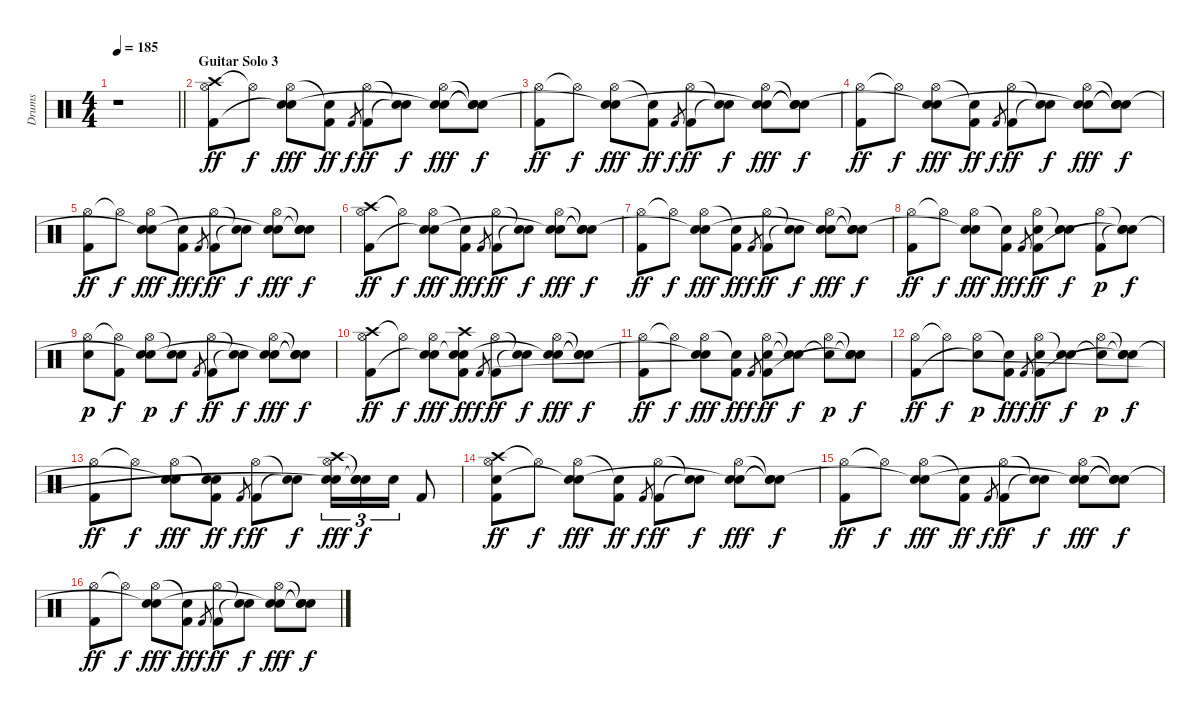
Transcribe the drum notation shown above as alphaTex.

\track ("Drums" "Drums") {instrument percussion}
\staff {score}
\articulation defaults
\ts (4 4)
\tempo 185
\clef neutral
\barLineRight lightlight
\ks c
r.1{dy f} |
\section ("" "Guitar Solo 3")
("Crash high (hit)" "Hi-Hat (open)" "Kick (hit) 2").8{dy ff} "Hi-Hat (open)"{t}.8{dy f} ("Hi-Hat (open)" "Electric Snare (hit)" "Snare (hit)"{t}).8{dy fff} ("Snare (hit)"{t} "Kick (hit) 2").8{dy ff} "Kick (hit) 2".8{gr dy f} ("Hi-Hat (open)" "Kick (hit) 2").8{dy ff} ("Snare (hit)"{t} "Snare (hit)"{t}).8{dy f} ("Hi-Hat (open)" "Electric Snare (hit)" "Snare (hit)"{t}).8{dy fff} ("Snare (hit)"{t} "Snare (hit)"{t} "Snare (hit)"{t}).8{dy f} |
("Hi-Hat (open)" "Kick (hit) 2").8{dy ff} "Hi-Hat (open)"{t}.8{dy f} ("Hi-Hat (open)" "Electric Snare (hit)" "Snare (hit)"{t}).8{dy fff} ("Snare (hit)"{t} "Kick (hit) 2").8{dy ff} "Kick (hit) 2".8{gr dy f} ("Hi-Hat (open)" "Kick (hit) 2").8{dy ff} ("Snare (hit)"{t} "Snare (hit)"{t}).8{dy f} ("Hi-Hat (open)" "Electric Snare (hit)" "Snare (hit)"{t}).8{dy fff} ("Snare (hit)"{t} "Snare (hit)"{t} "Snare (hit)"{t}).8{dy f} |
("Hi-Hat (open)" "Kick (hit) 2").8{dy ff} "Hi-Hat (open)"{t}.8{dy f} ("Hi-Hat (open)" "Electric Snare (hit)" "Snare (hit)"{t}).8{dy fff} ("Snare (hit)"{t} "Kick (hit) 2").8{dy ff} "Kick (hit) 2".8{gr dy f} ("Hi-Hat (open)" "Kick (hit) 2").8{dy ff} ("Snare (hit)"{t} "Snare (hit)"{t}).8{dy f} ("Hi-Hat (open)" "Electric Snare (hit)" "Snare (hit)"{t}).8{dy fff} ("Snare (hit)"{t} "Snare (hit)"{t} "Snare (hit)"{t}).8{dy f} |
("Hi-Hat (open)" "Kick (hit) 2").8{dy ff} "Hi-Hat (open)"{t}.8{dy f} ("Hi-Hat (open)" "Electric Snare (hit)" "Snare (hit)"{t}).8{dy fff} ("Snare (hit)"{t} "Kick (hit) 2").8{dy ff} "Kick (hit) 2".8{gr dy f} ("Hi-Hat (open)" "Kick (hit) 2").8{dy ff} ("Snare (hit)"{t} "Snare (hit)"{t}).8{dy f} ("Hi-Hat (open)" "Electric Snare (hit)" "Snare (hit)"{t}).8{dy fff} ("Snare (hit)"{t} "Electric Snare (hit)" "Snare (hit)"{t}).8{dy f} |
("Crash high (hit)" "Hi-Hat (open)" "Kick (hit) 2").8{dy ff} "Hi-Hat (open)"{t}.8{dy f} ("Hi-Hat (open)" "Electric Snare (hit)" "Snare (hit)"{t}).8{dy fff} ("Snare (hit)"{t} "Kick (hit) 2").8{dy ff} "Kick (hit) 2".8{gr dy f} ("Hi-Hat (open)" "Kick (hit) 2").8{dy ff} ("Snare (hit)"{t} "Snare (hit)"{t}).8{dy f} ("Hi-Hat (open)" "Electric Snare (hit)" "Snare (hit)"{t}).8{dy fff} ("Snare (hit)"{t} "Snare (hit)"{t} "Snare (hit)"{t}).8{dy f} |
("Hi-Hat (open)" "Kick (hit) 2").8{dy ff} "Hi-Hat (open)"{t}.8{dy f} ("Hi-Hat (open)" "Electric Snare (hit)" "Snare (hit)"{t}).8{dy fff} ("Snare (hit)"{t} "Kick (hit) 2").8{dy ff} "Kick (hit) 2".8{gr dy f} ("Hi-Hat (open)" "Kick (hit) 2").8{dy ff} ("Snare (hit)"{t} "Snare (hit)"{t}).8{dy f} ("Hi-Hat (open)" "Electric Snare (hit)" "Snare (hit)"{t}).8{dy fff} ("Snare (hit)"{t} "Snare (hit)"{t} "Snare (hit)"{t}).8{dy f} |
("Hi-Hat (open)" "Kick (hit) 2").8{dy ff} "Hi-Hat (open)"{t}.8{dy f} ("Hi-Hat (open)" "Electric Snare (hit)" "Snare (hit)"{t}).8{dy fff} ("Snare (hit)"{t} "Kick (hit) 2").8{dy ff} "Kick (hit) 2".8{gr dy f} ("Hi-Hat (open)" "Electric Snare (hit)" "Kick (hit) 2").8{dy ff} ("Snare (hit)"{t} "Electric Snare (hit)").8{dy f} ("Hi-Hat (open)" "Kick (hit) 2").8{dy p} ("Snare (hit)"{t} "Snare (hit)"{t} "Snare (hit)"{t}).8{dy f} |
("Hi-Hat (open)" "Electric Snare (hit)").8{dy p} ("Hi-Hat (open)"{t} "Kick (hit) 2").8{dy f} ("Hi-Hat (open)" "Electric Snare (hit)" "Snare (hit)"{t}).8{dy p} ("Snare (hit)"{t} "Electric Snare (hit)").8{dy f} "Kick (hit) 2".8{gr} ("Hi-Hat (open)" "Kick (hit) 2").8{dy ff} ("Snare (hit)"{t} "Snare (hit)"{t}).8{dy f} ("Hi-Hat (open)" "Electric Snare (hit)" "Snare (hit)"{t}).8{dy fff} ("Snare (hit)"{t} "Snare (hit)"{t} "Snare (hit)"{t}).8{dy f} |
("Crash high (hit)" "Hi-Hat (open)" "Kick (hit) 2").8{dy ff} "Hi-Hat (open)"{t}.8{dy f} ("Hi-Hat (open)" "Electric Snare (hit)" "Snare (hit)"{t}).8{dy fff} ("Crash high (hit)" "Snare (hit)"{t} "Electric Snare (hit)" "Kick (hit) 2").8{dy ff} "Kick (hit) 2".8{gr dy f} ("Hi-Hat (open)" "Kick (hit) 2").8{dy ff} ("Snare (hit)"{t} "Snare (hit)"{t}).8{dy f} ("Hi-Hat (open)" "Electric Snare (hit)" "Snare (hit)"{t}).8{dy fff} ("Snare (hit)"{t} "Snare (hit)"{t} "Snare (hit)"{t}).8{dy f} |
("Hi-Hat (open)" "Kick (hit) 2").8{dy ff} "Hi-Hat (open)"{t}.8{dy f} ("Hi-Hat (open)" "Electric Snare (hit)" "Snare (hit)"{t}).8{dy fff} ("Snare (hit)"{t} "Kick (hit) 2").8{dy ff} "Kick (hit) 2".8{gr dy f} ("Hi-Hat (open)" "Electric Snare (hit)" "Kick (hit) 2").8{dy ff} ("Snare (hit)"{t} "Snare (hit)"{t}).8{dy f} ("Hi-Hat (open)" "Snare (hit)"{t}).8{dy p} ("Snare (hit)"{t} "Snare (hit)"{t} "Snare (hit)"{t}).8{dy f} |
("Hi-Hat (open)" "Kick (hit) 2").8{dy ff} "Hi-Hat (open)"{t}.8{dy f} ("Hi-Hat (open)" "Snare (hit)"{t}).8{dy p} ("Snare (hit)"{t} "Kick (hit) 2").8{dy ff} "Kick (hit) 2".8{gr dy f} ("Hi-Hat (open)" "Electric Snare (hit)" "Kick (hit) 2").8{dy ff} ("Snare (hit)"{t} "Electric Snare (hit)").8{dy f} ("Hi-Hat (open)" "Snare (hit)"{t}).8{dy p} ("Snare (hit)"{t} "Snare (hit)"{t} "Snare (hit)"{t}).8{dy f} |
("Hi-Hat (open)" "Kick (hit) 2").8{dy ff} "Hi-Hat (open)"{t}.8{dy f} ("Hi-Hat (open)" "Electric Snare (hit)" "Snare (hit)"{t}).8{dy fff} ("Snare (hit)"{t} "Electric Snare (hit)" "Kick (hit) 2").8{dy ff} "Kick (hit) 2".8{gr dy f} ("Hi-Hat (open)" "Kick (hit) 2").8{dy ff} ("Snare (hit)"{t} "Snare (hit)"{t}).8{dy f} ("Crash high (hit)" "Hi-Hat (open)" "Electric Snare (hit)" "Snare (hit)"{t}).16{tu (3 2) dy fff} ("Snare (hit)"{t} "Electric Snare (hit)" "Snare (hit)"{t}).16{tu (3 2) dy f} "Electric Snare (hit)".16{tu (3 2)} "Kick (hit) 2".8 |
("Crash high (hit)" "Hi-Hat (open)" "Electric Snare (hit)" "Kick (hit) 2").8{dy ff} "Hi-Hat (open)"{t}.8{dy f} ("Hi-Hat (open)" "Electric Snare (hit)" "Snare (hit)"{t}).8{dy fff} ("Snare (hit)"{t} "Kick (hit) 2").8{dy ff} "Kick (hit) 2".8{gr dy f} ("Hi-Hat (open)" "Kick (hit) 2").8{dy ff} ("Snare (hit)"{t} "Snare (hit)"{t}).8{dy f} ("Hi-Hat (open)" "Electric Snare (hit)" "Snare (hit)"{t}).8{dy fff} ("Snare (hit)"{t} "Snare (hit)"{t} "Snare (hit)"{t}).8{dy f} |
("Hi-Hat (open)" "Kick (hit) 2").8{dy ff} "Hi-Hat (open)"{t}.8{dy f} ("Hi-Hat (open)" "Electric Snare (hit)" "Snare (hit)"{t}).8{dy fff} ("Snare (hit)"{t} "Kick (hit) 2").8{dy ff} "Kick (hit) 2".8{gr dy f} ("Hi-Hat (open)" "Kick (hit) 2").8{dy ff} ("Snare (hit)"{t} "Snare (hit)"{t}).8{dy f} ("Hi-Hat (open)" "Electric Snare (hit)" "Snare (hit)"{t}).8{dy fff} ("Snare (hit)"{t} "Snare (hit)"{t} "Snare (hit)"{t}).8{dy f} |
("Hi-Hat (open)" "Kick (hit) 2").8{dy ff} "Hi-Hat (open)"{t}.8{dy f} ("Hi-Hat (open)" "Electric Snare (hit)" "Snare (hit)"{t}).8{dy fff} ("Snare (hit)"{t} "Kick (hit) 2").8{dy ff} "Kick (hit) 2".8{gr dy f} ("Hi-Hat (open)" "Kick (hit) 2").8{dy ff} ("Snare (hit)"{t} "Snare (hit)"{t}).8{dy f} ("Hi-Hat (open)" "Electric Snare (hit)" "Snare (hit)"{t}).8{dy fff} ("Snare (hit)"{t} "Snare (hit)"{t} "Snare (hit)"{t}).8{dy f}
